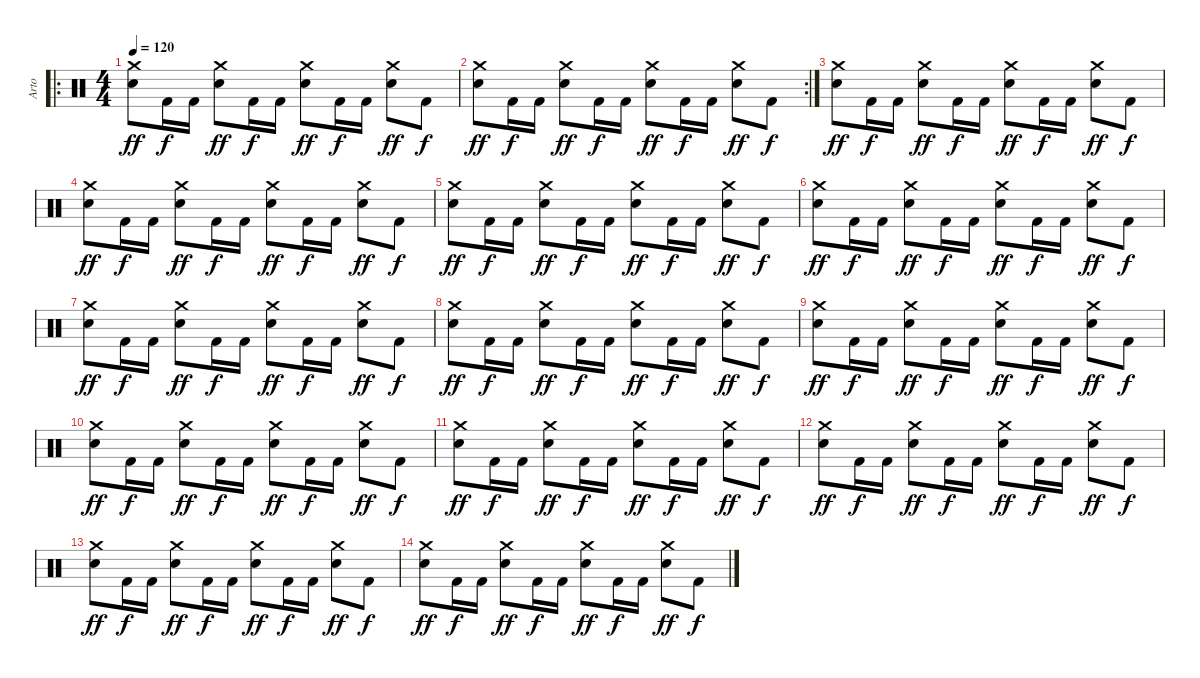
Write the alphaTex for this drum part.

\track ("Arto" "Arto") {instrument percussion}
\staff {score}
\articulation defaults
\ro
\ts (4 4)
\tempo 120
\clef neutral
\ks c
("Crash medium (hit)" "Snare (hit) 2").8{dy ff} "Kick (hit) 2".16{dy f} "Kick (hit) 2".16 ("Crash medium (hit)" "Snare (hit) 2").8{dy ff} "Kick (hit) 2".16{dy f} "Kick (hit) 2".16 ("Crash medium (hit)" "Snare (hit) 2").8{dy ff} "Kick (hit) 2".16{dy f} "Kick (hit) 2".16 ("Crash medium (hit)" "Snare (hit) 2").8{dy ff} "Kick (hit) 2".8{dy f} |
\rc 2
("Crash medium (hit)" "Snare (hit) 2").8{dy ff} "Kick (hit) 2".16{dy f} "Kick (hit) 2".16 ("Crash medium (hit)" "Snare (hit) 2").8{dy ff} "Kick (hit) 2".16{dy f} "Kick (hit) 2".16 ("Crash medium (hit)" "Snare (hit) 2").8{dy ff} "Kick (hit) 2".16{dy f} "Kick (hit) 2".16 ("Crash medium (hit)" "Snare (hit) 2").8{dy ff} "Kick (hit) 2".8{dy f} |
("Crash medium (hit)" "Snare (hit) 2").8{dy ff} "Kick (hit) 2".16{dy f} "Kick (hit) 2".16 ("Crash medium (hit)" "Snare (hit) 2").8{dy ff} "Kick (hit) 2".16{dy f} "Kick (hit) 2".16 ("Crash medium (hit)" "Snare (hit) 2").8{dy ff} "Kick (hit) 2".16{dy f} "Kick (hit) 2".16 ("Crash medium (hit)" "Snare (hit) 2").8{dy ff} "Kick (hit) 2".8{dy f} |
("Crash medium (hit)" "Snare (hit) 2").8{dy ff} "Kick (hit) 2".16{dy f} "Kick (hit) 2".16 ("Crash medium (hit)" "Snare (hit) 2").8{dy ff} "Kick (hit) 2".16{dy f} "Kick (hit) 2".16 ("Crash medium (hit)" "Snare (hit) 2").8{dy ff} "Kick (hit) 2".16{dy f} "Kick (hit) 2".16 ("Crash medium (hit)" "Snare (hit) 2").8{dy ff} "Kick (hit) 2".8{dy f} |
("Crash medium (hit)" "Snare (hit) 2").8{dy ff} "Kick (hit) 2".16{dy f} "Kick (hit) 2".16 ("Crash medium (hit)" "Snare (hit) 2").8{dy ff} "Kick (hit) 2".16{dy f} "Kick (hit) 2".16 ("Crash medium (hit)" "Snare (hit) 2").8{dy ff} "Kick (hit) 2".16{dy f} "Kick (hit) 2".16 ("Crash medium (hit)" "Snare (hit) 2").8{dy ff} "Kick (hit) 2".8{dy f} |
("Crash medium (hit)" "Snare (hit) 2").8{dy ff} "Kick (hit) 2".16{dy f} "Kick (hit) 2".16 ("Crash medium (hit)" "Snare (hit) 2").8{dy ff} "Kick (hit) 2".16{dy f} "Kick (hit) 2".16 ("Crash medium (hit)" "Snare (hit) 2").8{dy ff} "Kick (hit) 2".16{dy f} "Kick (hit) 2".16 ("Crash medium (hit)" "Snare (hit) 2").8{dy ff} "Kick (hit) 2".8{dy f} |
("Crash medium (hit)" "Snare (hit) 2").8{dy ff volume 12} "Kick (hit) 2".16{dy f} "Kick (hit) 2".16 ("Crash medium (hit)" "Snare (hit) 2").8{dy ff} "Kick (hit) 2".16{dy f volume 11} "Kick (hit) 2".16 ("Crash medium (hit)" "Snare (hit) 2").8{dy ff} "Kick (hit) 2".16{dy f} "Kick (hit) 2".16 ("Crash medium (hit)" "Snare (hit) 2").8{dy ff} "Kick (hit) 2".8{dy f} |
("Crash medium (hit)" "Snare (hit) 2").8{dy ff volume 10} "Kick (hit) 2".16{dy f} "Kick (hit) 2".16 ("Crash medium (hit)" "Snare (hit) 2").8{dy ff} "Kick (hit) 2".16{dy f volume 9} "Kick (hit) 2".16 ("Crash medium (hit)" "Snare (hit) 2").8{dy ff} "Kick (hit) 2".16{dy f} "Kick (hit) 2".16 ("Crash medium (hit)" "Snare (hit) 2").8{dy ff} "Kick (hit) 2".8{dy f} |
("Crash medium (hit)" "Snare (hit) 2").8{dy ff volume 8} "Kick (hit) 2".16{dy f} "Kick (hit) 2".16 ("Crash medium (hit)" "Snare (hit) 2").8{dy ff} "Kick (hit) 2".16{dy f volume 7} "Kick (hit) 2".16 ("Crash medium (hit)" "Snare (hit) 2").8{dy ff} "Kick (hit) 2".16{dy f} "Kick (hit) 2".16 ("Crash medium (hit)" "Snare (hit) 2").8{dy ff} "Kick (hit) 2".8{dy f} |
("Crash medium (hit)" "Snare (hit) 2").8{dy ff volume 6} "Kick (hit) 2".16{dy f} "Kick (hit) 2".16 ("Crash medium (hit)" "Snare (hit) 2").8{dy ff} "Kick (hit) 2".16{dy f} "Kick (hit) 2".16 ("Crash medium (hit)" "Snare (hit) 2").8{dy ff} "Kick (hit) 2".16{dy f} "Kick (hit) 2".16 ("Crash medium (hit)" "Snare (hit) 2").8{dy ff} "Kick (hit) 2".8{dy f} |
("Crash medium (hit)" "Snare (hit) 2").8{dy ff volume 5} "Kick (hit) 2".16{dy f} "Kick (hit) 2".16 ("Crash medium (hit)" "Snare (hit) 2").8{dy ff} "Kick (hit) 2".16{dy f} "Kick (hit) 2".16 ("Crash medium (hit)" "Snare (hit) 2").8{dy ff} "Kick (hit) 2".16{dy f} "Kick (hit) 2".16 ("Crash medium (hit)" "Snare (hit) 2").8{dy ff} "Kick (hit) 2".8{dy f} |
("Crash medium (hit)" "Snare (hit) 2").8{dy ff volume 4} "Kick (hit) 2".16{dy f} "Kick (hit) 2".16 ("Crash medium (hit)" "Snare (hit) 2").8{dy ff} "Kick (hit) 2".16{dy f} "Kick (hit) 2".16 ("Crash medium (hit)" "Snare (hit) 2").8{dy ff} "Kick (hit) 2".16{dy f} "Kick (hit) 2".16 ("Crash medium (hit)" "Snare (hit) 2").8{dy ff} "Kick (hit) 2".8{dy f} |
("Crash medium (hit)" "Snare (hit) 2").8{dy ff volume 3} "Kick (hit) 2".16{dy f} "Kick (hit) 2".16 ("Crash medium (hit)" "Snare (hit) 2").8{dy ff} "Kick (hit) 2".16{dy f volume 2} "Kick (hit) 2".16 ("Crash medium (hit)" "Snare (hit) 2").8{dy ff} "Kick (hit) 2".16{dy f} "Kick (hit) 2".16 ("Crash medium (hit)" "Snare (hit) 2").8{dy ff} "Kick (hit) 2".8{dy f} |
("Crash medium (hit)" "Snare (hit) 2").8{dy ff volume 1} "Kick (hit) 2".16{dy f} "Kick (hit) 2".16 ("Crash medium (hit)" "Snare (hit) 2").8{dy ff} "Kick (hit) 2".16{dy f volume 0} "Kick (hit) 2".16 ("Crash medium (hit)" "Snare (hit) 2").8{dy ff} "Kick (hit) 2".16{dy f} "Kick (hit) 2".16 ("Crash medium (hit)" "Snare (hit) 2").8{dy ff} "Kick (hit) 2".8{dy f}
